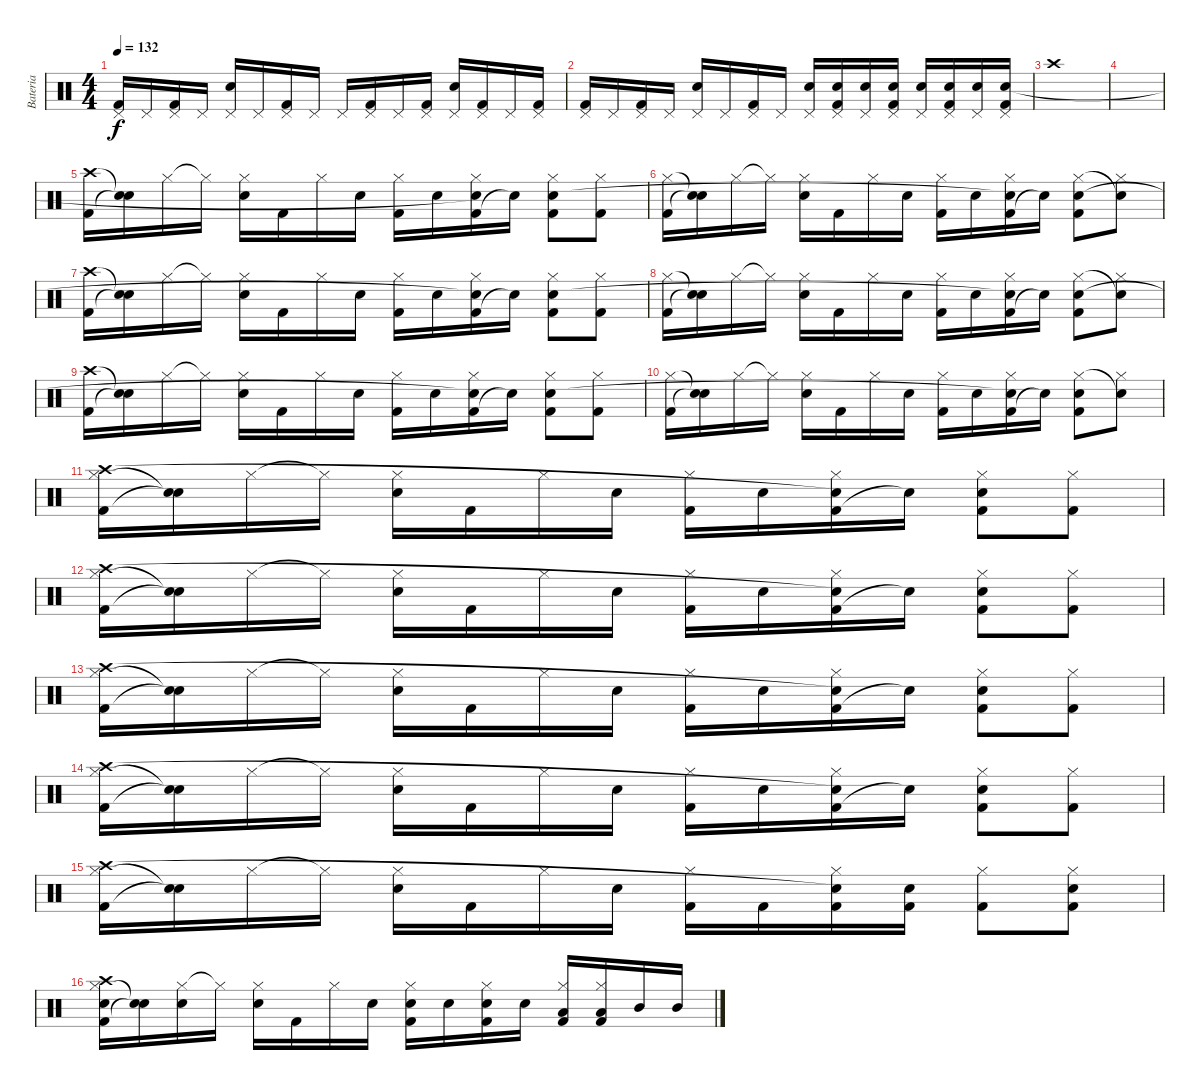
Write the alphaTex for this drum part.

\track ("Bateria" "Bateria") {instrument percussion}
\staff {score}
\articulation defaults
\ts (4 4)
\tempo 132
\clef neutral
\ks c
("Kick (hit) 2" "Pedal Hi-Hat (hit)").16{dy f} "Pedal Hi-Hat (hit)".16 ("Kick (hit) 2" "Pedal Hi-Hat (hit)").16 "Pedal Hi-Hat (hit)".16 ("Pedal Hi-Hat (hit)" "Electric Snare (hit)").16 "Pedal Hi-Hat (hit)".16 ("Kick (hit) 2" "Pedal Hi-Hat (hit)").16 "Pedal Hi-Hat (hit)".16 "Pedal Hi-Hat (hit)".16 ("Kick (hit) 2" "Pedal Hi-Hat (hit)").16 "Pedal Hi-Hat (hit)".16 ("Kick (hit) 2" "Pedal Hi-Hat (hit)").16 ("Pedal Hi-Hat (hit)" "Electric Snare (hit)").16 ("Kick (hit) 2" "Pedal Hi-Hat (hit)").16 "Pedal Hi-Hat (hit)".16 ("Kick (hit) 2" "Pedal Hi-Hat (hit)").16 |
("Kick (hit) 2" "Pedal Hi-Hat (hit)").16 "Pedal Hi-Hat (hit)".16 ("Kick (hit) 2" "Pedal Hi-Hat (hit)").16 "Pedal Hi-Hat (hit)".16 ("Pedal Hi-Hat (hit)" "Electric Snare (hit)").16 "Pedal Hi-Hat (hit)".16 ("Kick (hit) 2" "Pedal Hi-Hat (hit)").16 "Pedal Hi-Hat (hit)".16 ("Pedal Hi-Hat (hit)" "Electric Snare (hit)").16 ("Kick (hit) 2" "Pedal Hi-Hat (hit)" "Electric Snare (hit)").16 ("Pedal Hi-Hat (hit)" "Electric Snare (hit)").16 ("Kick (hit) 2" "Pedal Hi-Hat (hit)" "Electric Snare (hit)").16 ("Pedal Hi-Hat (hit)" "Electric Snare (hit)").16 ("Kick (hit) 2" "Pedal Hi-Hat (hit)" "Electric Snare (hit)").16 ("Pedal Hi-Hat (hit)" "Electric Snare (hit)").16 ("Kick (hit) 2" "Pedal Hi-Hat (hit)" "Electric Snare (hit)").16 |
"Crash high (hit)".1 |
|
("Kick (hit) 2" "Crash high (hit)").16 ("Snare (hit)"{t} "Electric Snare (hit)"{t}).16 "Hi-Hat (closed)".16 "Hi-Hat (closed)"{t}.16 ("Hi-Hat (closed)" "Electric Snare (hit)").16 "Kick (hit) 2".16 "Hi-Hat (closed)".16 "Electric Snare (hit)".16 ("Kick (hit) 2" "Hi-Hat (closed)").16 "Electric Snare (hit)".16 ("Kick (hit) 2" "Hi-Hat (closed)" "Snare (hit)"{t}).16 "Electric Snare (hit)"{t}.16 ("Kick (hit) 2" "Hi-Hat (closed)" "Electric Snare (hit)").8 ("Kick (hit) 2" "Hi-Hat (closed)").8 |
("Kick (hit) 2" "Hi-Hat (closed)").16 ("Snare (hit)"{t} "Electric Snare (hit)"{t}).16 "Hi-Hat (closed)".16 "Hi-Hat (closed)"{t}.16 ("Hi-Hat (closed)" "Electric Snare (hit)").16 "Kick (hit) 2".16 "Hi-Hat (closed)".16 "Electric Snare (hit)".16 ("Kick (hit) 2" "Hi-Hat (closed)").16 "Electric Snare (hit)".16 ("Kick (hit) 2" "Hi-Hat (closed)" "Snare (hit)"{t}).16 "Electric Snare (hit)"{t}.16 ("Kick (hit) 2" "Hi-Hat (closed)" "Electric Snare (hit)").8 ("Hi-Hat (closed)" "Snare (hit)"{t}).8 |
("Kick (hit) 2" "Crash high (hit)").16 ("Snare (hit)"{t} "Electric Snare (hit)"{t}).16 "Hi-Hat (closed)".16 "Hi-Hat (closed)"{t}.16 ("Hi-Hat (closed)" "Electric Snare (hit)").16 "Kick (hit) 2".16 "Hi-Hat (closed)".16 "Electric Snare (hit)".16 ("Kick (hit) 2" "Hi-Hat (closed)").16 "Electric Snare (hit)".16 ("Kick (hit) 2" "Hi-Hat (closed)" "Snare (hit)"{t}).16 "Electric Snare (hit)"{t}.16 ("Kick (hit) 2" "Hi-Hat (closed)" "Electric Snare (hit)").8 ("Kick (hit) 2" "Hi-Hat (closed)").8 |
("Kick (hit) 2" "Hi-Hat (closed)").16 ("Snare (hit)"{t} "Electric Snare (hit)"{t}).16 "Hi-Hat (closed)".16 "Hi-Hat (closed)"{t}.16 ("Hi-Hat (closed)" "Electric Snare (hit)").16 "Kick (hit) 2".16 "Hi-Hat (closed)".16 "Electric Snare (hit)".16 ("Kick (hit) 2" "Hi-Hat (closed)").16 "Electric Snare (hit)".16 ("Kick (hit) 2" "Hi-Hat (closed)" "Snare (hit)"{t}).16 "Electric Snare (hit)"{t}.16 ("Kick (hit) 2" "Hi-Hat (closed)" "Electric Snare (hit)").8 ("Hi-Hat (closed)" "Snare (hit)"{t}).8 |
("Kick (hit) 2" "Crash high (hit)").16 ("Snare (hit)"{t} "Electric Snare (hit)"{t}).16 "Hi-Hat (closed)".16 "Hi-Hat (closed)"{t}.16 ("Hi-Hat (closed)" "Electric Snare (hit)").16 "Kick (hit) 2".16 "Hi-Hat (closed)".16 "Electric Snare (hit)".16 ("Kick (hit) 2" "Hi-Hat (closed)").16 "Electric Snare (hit)".16 ("Kick (hit) 2" "Hi-Hat (closed)" "Snare (hit)"{t}).16 "Electric Snare (hit)"{t}.16 ("Kick (hit) 2" "Hi-Hat (closed)" "Electric Snare (hit)").8 ("Kick (hit) 2" "Hi-Hat (closed)").8 |
("Kick (hit) 2" "Hi-Hat (closed)").16 ("Snare (hit)"{t} "Electric Snare (hit)"{t}).16 "Hi-Hat (closed)".16 "Hi-Hat (closed)"{t}.16 ("Hi-Hat (closed)" "Electric Snare (hit)").16 "Kick (hit) 2".16 "Hi-Hat (closed)".16 "Electric Snare (hit)".16 ("Kick (hit) 2" "Hi-Hat (closed)").16 "Electric Snare (hit)".16 ("Kick (hit) 2" "Hi-Hat (closed)" "Snare (hit)"{t}).16 "Electric Snare (hit)"{t}.16 ("Kick (hit) 2" "Hi-Hat (closed)" "Electric Snare (hit)").8 ("Hi-Hat (closed)" "Snare (hit)"{t}).8 |
("Kick (hit) 2" "Hi-Hat (closed)" "Crash high (hit)").16 ("Snare (hit)"{t} "Electric Snare (hit)"{t}).16 "Hi-Hat (closed)".16 "Hi-Hat (closed)"{t}.16 ("Hi-Hat (closed)" "Electric Snare (hit)").16 "Kick (hit) 2".16 "Hi-Hat (closed)".16 "Electric Snare (hit)".16 ("Kick (hit) 2" "Hi-Hat (closed)").16 "Electric Snare (hit)".16 ("Kick (hit) 2" "Hi-Hat (closed)" "Snare (hit)"{t}).16 "Electric Snare (hit)"{t}.16 ("Kick (hit) 2" "Hi-Hat (closed)" "Electric Snare (hit)").8 ("Kick (hit) 2" "Hi-Hat (closed)").8 |
("Kick (hit) 2" "Hi-Hat (closed)" "Crash high (hit)").16 ("Snare (hit)"{t} "Electric Snare (hit)"{t}).16 "Hi-Hat (closed)".16 "Hi-Hat (closed)"{t}.16 ("Hi-Hat (closed)" "Electric Snare (hit)").16 "Kick (hit) 2".16 "Hi-Hat (closed)".16 "Electric Snare (hit)".16 ("Kick (hit) 2" "Hi-Hat (closed)").16 "Electric Snare (hit)".16 ("Kick (hit) 2" "Hi-Hat (closed)" "Snare (hit)"{t}).16 "Electric Snare (hit)"{t}.16 ("Kick (hit) 2" "Hi-Hat (closed)" "Electric Snare (hit)").8 ("Kick (hit) 2" "Hi-Hat (closed)").8 |
("Kick (hit) 2" "Hi-Hat (closed)" "Crash high (hit)").16 ("Snare (hit)"{t} "Electric Snare (hit)"{t}).16 "Hi-Hat (closed)".16 "Hi-Hat (closed)"{t}.16 ("Hi-Hat (closed)" "Electric Snare (hit)").16 "Kick (hit) 2".16 "Hi-Hat (closed)".16 "Electric Snare (hit)".16 ("Kick (hit) 2" "Hi-Hat (closed)").16 "Electric Snare (hit)".16 ("Kick (hit) 2" "Hi-Hat (closed)" "Snare (hit)"{t}).16 "Electric Snare (hit)"{t}.16 ("Kick (hit) 2" "Hi-Hat (closed)" "Electric Snare (hit)").8 ("Kick (hit) 2" "Hi-Hat (closed)").8 |
("Kick (hit) 2" "Hi-Hat (closed)" "Crash high (hit)").16 ("Snare (hit)"{t} "Electric Snare (hit)"{t}).16 "Hi-Hat (closed)".16 "Hi-Hat (closed)"{t}.16 ("Hi-Hat (closed)" "Electric Snare (hit)").16 "Kick (hit) 2".16 "Hi-Hat (closed)".16 "Electric Snare (hit)".16 ("Kick (hit) 2" "Hi-Hat (closed)").16 "Electric Snare (hit)".16 ("Kick (hit) 2" "Hi-Hat (closed)" "Snare (hit)"{t}).16 "Electric Snare (hit)"{t}.16 ("Kick (hit) 2" "Hi-Hat (closed)" "Electric Snare (hit)").8 ("Kick (hit) 2" "Hi-Hat (closed)").8 |
("Kick (hit) 2" "Hi-Hat (closed)" "Crash high (hit)").16 ("Snare (hit)"{t} "Electric Snare (hit)"{t}).16 "Hi-Hat (closed)".16 "Hi-Hat (closed)"{t}.16 ("Hi-Hat (closed)" "Electric Snare (hit)").16 "Kick (hit) 2".16 "Hi-Hat (closed)".16 "Electric Snare (hit)".16 ("Kick (hit) 2" "Hi-Hat (closed)").16 "Kick (hit) 2".16 ("Kick (hit) 2" "Hi-Hat (closed)" "Snare (hit)"{t}).16 ("Kick (hit) 2" "Electric Snare (hit)").16 ("Kick (hit) 2" "Hi-Hat (closed)").8 ("Kick (hit) 2" "Hi-Hat (closed)" "Electric Snare (hit)").8 |
("Kick (hit) 2" "Hi-Hat (closed)" "Electric Snare (hit)" "Crash high (hit)").16 ("Snare (hit)"{t} "Electric Snare (hit)"{t}).16 ("Hi-Hat (closed)" "Electric Snare (hit)").16 "Hi-Hat (closed)"{t}.16 ("Hi-Hat (closed)" "Electric Snare (hit)").16 "Kick (hit) 2".16 "Hi-Hat (closed)".16 "Electric Snare (hit)".16 ("Kick (hit) 2" "Hi-Hat (closed)" "Electric Snare (hit)").16 "Electric Snare (hit)".16 ("Kick (hit) 2" "Hi-Hat (closed)" "Electric Snare (hit)").16 "Electric Snare (hit)".16 ("Kick (hit) 2" "Hi-Hat (closed)" "Low Tom (hit)").16 ("Kick (hit) 2" "Hi-Hat (closed)" "Low Tom (hit)").16 "Mid Tom (hit)".16 "Mid Tom (hit)".16
